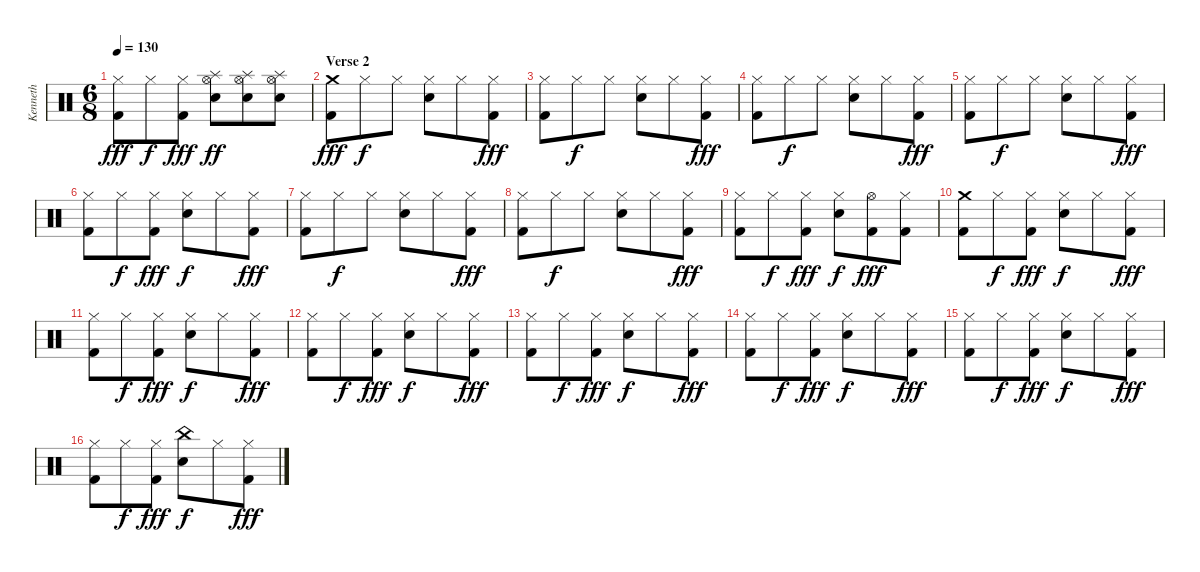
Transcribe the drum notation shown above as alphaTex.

\track ("Kenneth" "Kenneth") {instrument percussion}
\staff {score}
\articulation defaults
\ts (6 8)
\tempo 130
\clef neutral
\ks c
("Hi-Hat (closed)" "Kick (hit) 2").8{dy fff} "Hi-Hat (closed)".8{dy f} ("Hi-Hat (closed)" "Kick (hit) 2").8{dy fff} ("Splash (hit)" "Hi-Hat (open)" "Electric Snare (hit)").8{dy ff} ("Splash (hit)" "Hi-Hat (open)" "Electric Snare (hit)").8 ("Splash (hit)" "Hi-Hat (open)" "Electric Snare (hit)").8 |
\section ("" "Verse 2")
("Crash medium (hit)" "Kick (hit) 2").8{dy fff} "Hi-Hat (closed)".8{dy f} "Hi-Hat (closed)".8 ("Hi-Hat (closed)" "Electric Snare (hit)").8 "Hi-Hat (closed)".8 ("Hi-Hat (closed)" "Kick (hit) 2").8{dy fff} |
("Hi-Hat (closed)" "Kick (hit) 2").8 "Hi-Hat (closed)".8{dy f} "Hi-Hat (closed)".8 ("Hi-Hat (closed)" "Electric Snare (hit)").8 "Hi-Hat (closed)".8 ("Hi-Hat (closed)" "Kick (hit) 2").8{dy fff} |
("Hi-Hat (closed)" "Kick (hit) 2").8 "Hi-Hat (closed)".8{dy f} "Hi-Hat (closed)".8 ("Hi-Hat (closed)" "Electric Snare (hit)").8 "Hi-Hat (closed)".8 ("Hi-Hat (closed)" "Kick (hit) 2").8{dy fff} |
("Hi-Hat (closed)" "Kick (hit) 2").8 "Hi-Hat (closed)".8{dy f} "Hi-Hat (closed)".8 ("Hi-Hat (closed)" "Electric Snare (hit)").8 "Hi-Hat (closed)".8 ("Hi-Hat (closed)" "Kick (hit) 2").8{dy fff} |
("Hi-Hat (closed)" "Kick (hit) 2").8 "Hi-Hat (closed)".8{dy f} ("Hi-Hat (closed)" "Kick (hit) 2").8{dy fff} ("Hi-Hat (closed)" "Electric Snare (hit)").8{dy f} "Hi-Hat (closed)".8 ("Hi-Hat (closed)" "Kick (hit) 2").8{dy fff} |
("Hi-Hat (closed)" "Kick (hit) 2").8 "Hi-Hat (closed)".8{dy f} "Hi-Hat (closed)".8 ("Hi-Hat (closed)" "Electric Snare (hit)").8 "Hi-Hat (closed)".8 ("Hi-Hat (closed)" "Kick (hit) 2").8{dy fff} |
("Hi-Hat (closed)" "Kick (hit) 2").8 "Hi-Hat (closed)".8{dy f} "Hi-Hat (closed)".8 ("Hi-Hat (closed)" "Electric Snare (hit)").8 "Hi-Hat (closed)".8 ("Hi-Hat (closed)" "Kick (hit) 2").8{dy fff} |
("Hi-Hat (closed)" "Kick (hit) 2").8 "Hi-Hat (closed)".8{dy f} ("Hi-Hat (closed)" "Kick (hit) 2").8{dy fff} ("Hi-Hat (closed)" "Electric Snare (hit)").8{dy f} ("Hi-Hat (open)" "Kick (hit) 2").8{dy fff} ("Hi-Hat (closed)" "Kick (hit) 2").8 |
("Crash medium (hit)" "Kick (hit) 2").8 "Hi-Hat (closed)".8{dy f} ("Hi-Hat (closed)" "Kick (hit) 2").8{dy fff} ("Hi-Hat (closed)" "Electric Snare (hit)").8{dy f} "Hi-Hat (closed)".8 ("Hi-Hat (closed)" "Kick (hit) 2").8{dy fff} |
("Hi-Hat (closed)" "Kick (hit) 2").8 "Hi-Hat (closed)".8{dy f} ("Hi-Hat (closed)" "Kick (hit) 2").8{dy fff} ("Hi-Hat (closed)" "Electric Snare (hit)").8{dy f} "Hi-Hat (closed)".8 ("Hi-Hat (closed)" "Kick (hit) 2").8{dy fff} |
("Hi-Hat (closed)" "Kick (hit) 2").8 "Hi-Hat (closed)".8{dy f} ("Hi-Hat (closed)" "Kick (hit) 2").8{dy fff} ("Hi-Hat (closed)" "Electric Snare (hit)").8{dy f} "Hi-Hat (closed)".8 ("Hi-Hat (closed)" "Kick (hit) 2").8{dy fff} |
("Hi-Hat (closed)" "Kick (hit) 2").8 "Hi-Hat (closed)".8{dy f} ("Hi-Hat (closed)" "Kick (hit) 2").8{dy fff} ("Hi-Hat (closed)" "Electric Snare (hit)").8{dy f} "Hi-Hat (closed)".8 ("Hi-Hat (closed)" "Kick (hit) 2").8{dy fff} |
("Hi-Hat (closed)" "Kick (hit) 2").8 "Hi-Hat (closed)".8{dy f} ("Hi-Hat (closed)" "Kick (hit) 2").8{dy fff} ("Hi-Hat (closed)" "Electric Snare (hit)").8{dy f} "Hi-Hat (closed)".8 ("Hi-Hat (closed)" "Kick (hit) 2").8{dy fff} |
("Hi-Hat (closed)" "Kick (hit) 2").8 "Hi-Hat (closed)".8{dy f} ("Hi-Hat (closed)" "Kick (hit) 2").8{dy fff} ("Hi-Hat (closed)" "Electric Snare (hit)").8{dy f} "Hi-Hat (closed)".8 ("Hi-Hat (closed)" "Kick (hit) 2").8{dy fff} |
("Hi-Hat (closed)" "Kick (hit) 2").8 "Hi-Hat (closed)".8{dy f} ("Hi-Hat (closed)" "Kick (hit) 2").8{dy fff} ("China (hit)" "Electric Snare (hit)").8{dy f} "Hi-Hat (closed)".8 ("Hi-Hat (closed)" "Kick (hit) 2").8{dy fff}
